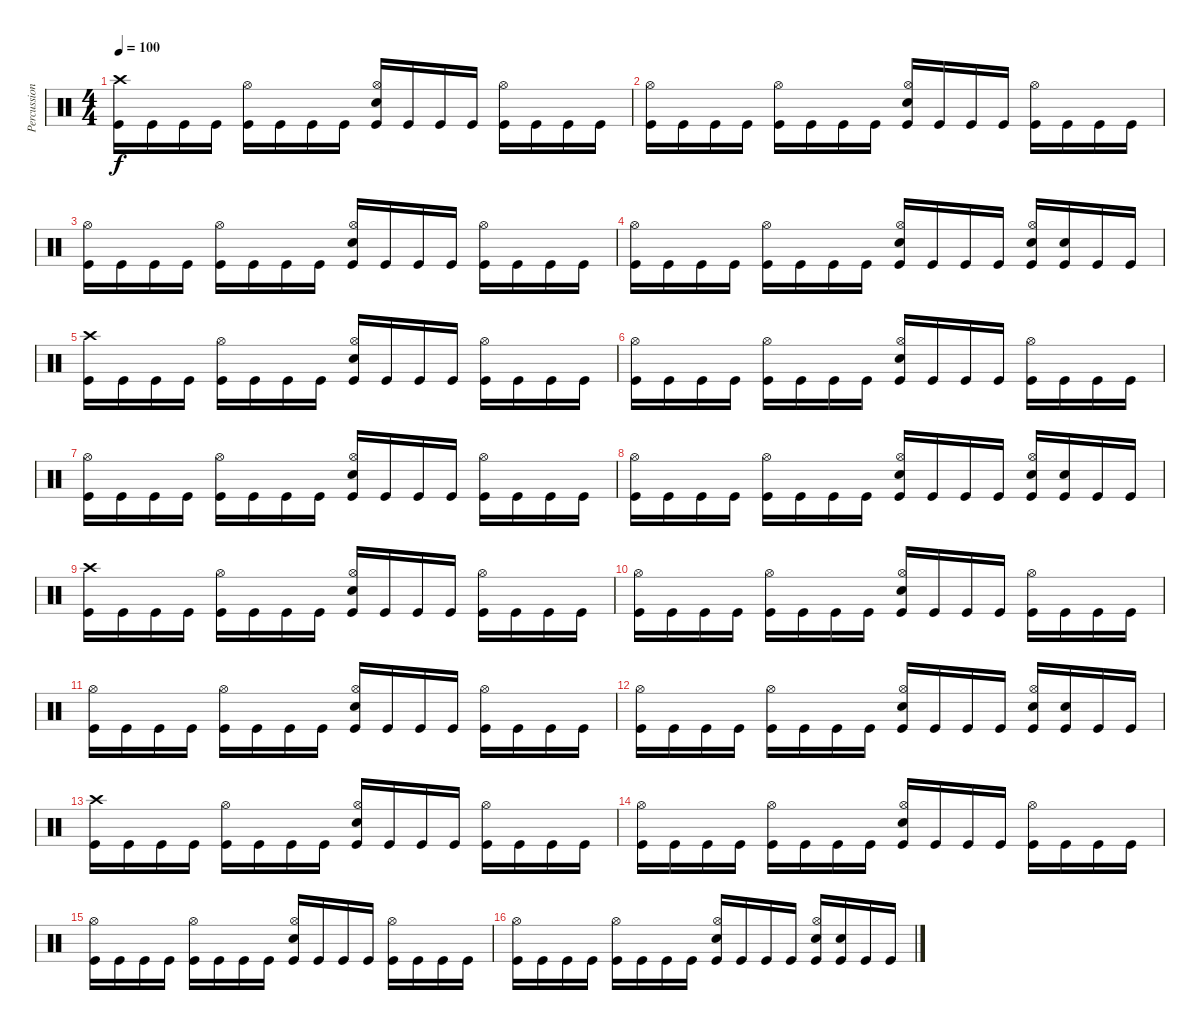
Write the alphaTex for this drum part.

\track ("Percussion" "Percussion") {instrument percussion}
\staff {score}
\articulation defaults
\ts (4 4)
\tempo 100
\clef neutral
\ks c
("Crash high (hit)" "Kick (hit)").16{dy f} "Kick (hit)".16 "Kick (hit)".16 "Kick (hit)".16 ("Hi-Hat (open)" "Kick (hit)").16 "Kick (hit)".16 "Kick (hit)".16 "Kick (hit)".16 ("Hi-Hat (open)" "Snare (hit) 2" "Kick (hit)").16 "Kick (hit)".16 "Kick (hit)".16 "Kick (hit)".16 ("Hi-Hat (open)" "Kick (hit)").16 "Kick (hit)".16 "Kick (hit)".16 "Kick (hit)".16 |
("Hi-Hat (open)" "Kick (hit)").16 "Kick (hit)".16 "Kick (hit)".16 "Kick (hit)".16 ("Hi-Hat (open)" "Kick (hit)").16 "Kick (hit)".16 "Kick (hit)".16 "Kick (hit)".16 ("Hi-Hat (open)" "Snare (hit) 2" "Kick (hit)").16 "Kick (hit)".16 "Kick (hit)".16 "Kick (hit)".16 ("Hi-Hat (open)" "Kick (hit)").16 "Kick (hit)".16 "Kick (hit)".16 "Kick (hit)".16 |
("Hi-Hat (open)" "Kick (hit)").16 "Kick (hit)".16 "Kick (hit)".16 "Kick (hit)".16 ("Hi-Hat (open)" "Kick (hit)").16 "Kick (hit)".16 "Kick (hit)".16 "Kick (hit)".16 ("Hi-Hat (open)" "Snare (hit) 2" "Kick (hit)").16 "Kick (hit)".16 "Kick (hit)".16 "Kick (hit)".16 ("Hi-Hat (open)" "Kick (hit)").16 "Kick (hit)".16 "Kick (hit)".16 "Kick (hit)".16 |
("Hi-Hat (open)" "Kick (hit)").16 "Kick (hit)".16 "Kick (hit)".16 "Kick (hit)".16 ("Hi-Hat (open)" "Kick (hit)").16 "Kick (hit)".16 "Kick (hit)".16 "Kick (hit)".16 ("Hi-Hat (open)" "Snare (hit) 2" "Kick (hit)").16 "Kick (hit)".16 "Kick (hit)".16 "Kick (hit)".16 ("Hi-Hat (open)" "Snare (hit) 2" "Kick (hit)").16 ("Snare (hit) 2" "Kick (hit)").16 "Kick (hit)".16 "Kick (hit)".16 |
("Crash high (hit)" "Kick (hit)").16 "Kick (hit)".16 "Kick (hit)".16 "Kick (hit)".16 ("Hi-Hat (open)" "Kick (hit)").16 "Kick (hit)".16 "Kick (hit)".16 "Kick (hit)".16 ("Hi-Hat (open)" "Snare (hit) 2" "Kick (hit)").16 "Kick (hit)".16 "Kick (hit)".16 "Kick (hit)".16 ("Hi-Hat (open)" "Kick (hit)").16 "Kick (hit)".16 "Kick (hit)".16 "Kick (hit)".16 |
("Hi-Hat (open)" "Kick (hit)").16 "Kick (hit)".16 "Kick (hit)".16 "Kick (hit)".16 ("Hi-Hat (open)" "Kick (hit)").16 "Kick (hit)".16 "Kick (hit)".16 "Kick (hit)".16 ("Hi-Hat (open)" "Snare (hit) 2" "Kick (hit)").16 "Kick (hit)".16 "Kick (hit)".16 "Kick (hit)".16 ("Hi-Hat (open)" "Kick (hit)").16 "Kick (hit)".16 "Kick (hit)".16 "Kick (hit)".16 |
("Hi-Hat (open)" "Kick (hit)").16 "Kick (hit)".16 "Kick (hit)".16 "Kick (hit)".16 ("Hi-Hat (open)" "Kick (hit)").16 "Kick (hit)".16 "Kick (hit)".16 "Kick (hit)".16 ("Hi-Hat (open)" "Snare (hit) 2" "Kick (hit)").16 "Kick (hit)".16 "Kick (hit)".16 "Kick (hit)".16 ("Hi-Hat (open)" "Kick (hit)").16 "Kick (hit)".16 "Kick (hit)".16 "Kick (hit)".16 |
("Hi-Hat (open)" "Kick (hit)").16 "Kick (hit)".16 "Kick (hit)".16 "Kick (hit)".16 ("Hi-Hat (open)" "Kick (hit)").16 "Kick (hit)".16 "Kick (hit)".16 "Kick (hit)".16 ("Hi-Hat (open)" "Snare (hit) 2" "Kick (hit)").16 "Kick (hit)".16 "Kick (hit)".16 "Kick (hit)".16 ("Hi-Hat (open)" "Snare (hit) 2" "Kick (hit)").16 ("Snare (hit) 2" "Kick (hit)").16 "Kick (hit)".16 "Kick (hit)".16 |
("Crash high (hit)" "Kick (hit)").16 "Kick (hit)".16 "Kick (hit)".16 "Kick (hit)".16 ("Hi-Hat (open)" "Kick (hit)").16 "Kick (hit)".16 "Kick (hit)".16 "Kick (hit)".16 ("Hi-Hat (open)" "Snare (hit) 2" "Kick (hit)").16 "Kick (hit)".16 "Kick (hit)".16 "Kick (hit)".16 ("Hi-Hat (open)" "Kick (hit)").16 "Kick (hit)".16 "Kick (hit)".16 "Kick (hit)".16 |
("Hi-Hat (open)" "Kick (hit)").16 "Kick (hit)".16 "Kick (hit)".16 "Kick (hit)".16 ("Hi-Hat (open)" "Kick (hit)").16 "Kick (hit)".16 "Kick (hit)".16 "Kick (hit)".16 ("Hi-Hat (open)" "Snare (hit) 2" "Kick (hit)").16 "Kick (hit)".16 "Kick (hit)".16 "Kick (hit)".16 ("Hi-Hat (open)" "Kick (hit)").16 "Kick (hit)".16 "Kick (hit)".16 "Kick (hit)".16 |
("Hi-Hat (open)" "Kick (hit)").16 "Kick (hit)".16 "Kick (hit)".16 "Kick (hit)".16 ("Hi-Hat (open)" "Kick (hit)").16 "Kick (hit)".16 "Kick (hit)".16 "Kick (hit)".16 ("Hi-Hat (open)" "Snare (hit) 2" "Kick (hit)").16 "Kick (hit)".16 "Kick (hit)".16 "Kick (hit)".16 ("Hi-Hat (open)" "Kick (hit)").16 "Kick (hit)".16 "Kick (hit)".16 "Kick (hit)".16 |
("Hi-Hat (open)" "Kick (hit)").16 "Kick (hit)".16 "Kick (hit)".16 "Kick (hit)".16 ("Hi-Hat (open)" "Kick (hit)").16 "Kick (hit)".16 "Kick (hit)".16 "Kick (hit)".16 ("Hi-Hat (open)" "Snare (hit) 2" "Kick (hit)").16 "Kick (hit)".16 "Kick (hit)".16 "Kick (hit)".16 ("Hi-Hat (open)" "Snare (hit) 2" "Kick (hit)").16 ("Snare (hit) 2" "Kick (hit)").16 "Kick (hit)".16 "Kick (hit)".16 |
("Crash high (hit)" "Kick (hit)").16 "Kick (hit)".16 "Kick (hit)".16 "Kick (hit)".16 ("Hi-Hat (open)" "Kick (hit)").16 "Kick (hit)".16 "Kick (hit)".16 "Kick (hit)".16 ("Hi-Hat (open)" "Snare (hit) 2" "Kick (hit)").16 "Kick (hit)".16 "Kick (hit)".16 "Kick (hit)".16 ("Hi-Hat (open)" "Kick (hit)").16 "Kick (hit)".16 "Kick (hit)".16 "Kick (hit)".16 |
("Hi-Hat (open)" "Kick (hit)").16 "Kick (hit)".16 "Kick (hit)".16 "Kick (hit)".16 ("Hi-Hat (open)" "Kick (hit)").16 "Kick (hit)".16 "Kick (hit)".16 "Kick (hit)".16 ("Hi-Hat (open)" "Snare (hit) 2" "Kick (hit)").16 "Kick (hit)".16 "Kick (hit)".16 "Kick (hit)".16 ("Hi-Hat (open)" "Kick (hit)").16 "Kick (hit)".16 "Kick (hit)".16 "Kick (hit)".16 |
("Hi-Hat (open)" "Kick (hit)").16 "Kick (hit)".16 "Kick (hit)".16 "Kick (hit)".16 ("Hi-Hat (open)" "Kick (hit)").16 "Kick (hit)".16 "Kick (hit)".16 "Kick (hit)".16 ("Hi-Hat (open)" "Snare (hit) 2" "Kick (hit)").16 "Kick (hit)".16 "Kick (hit)".16 "Kick (hit)".16 ("Hi-Hat (open)" "Kick (hit)").16 "Kick (hit)".16 "Kick (hit)".16 "Kick (hit)".16 |
("Hi-Hat (open)" "Kick (hit)").16 "Kick (hit)".16 "Kick (hit)".16 "Kick (hit)".16 ("Hi-Hat (open)" "Kick (hit)").16 "Kick (hit)".16 "Kick (hit)".16 "Kick (hit)".16 ("Hi-Hat (open)" "Snare (hit) 2" "Kick (hit)").16 "Kick (hit)".16 "Kick (hit)".16 "Kick (hit)".16 ("Hi-Hat (open)" "Snare (hit) 2" "Kick (hit)").16 ("Snare (hit) 2" "Kick (hit)").16 "Kick (hit)".16 "Kick (hit)".16
